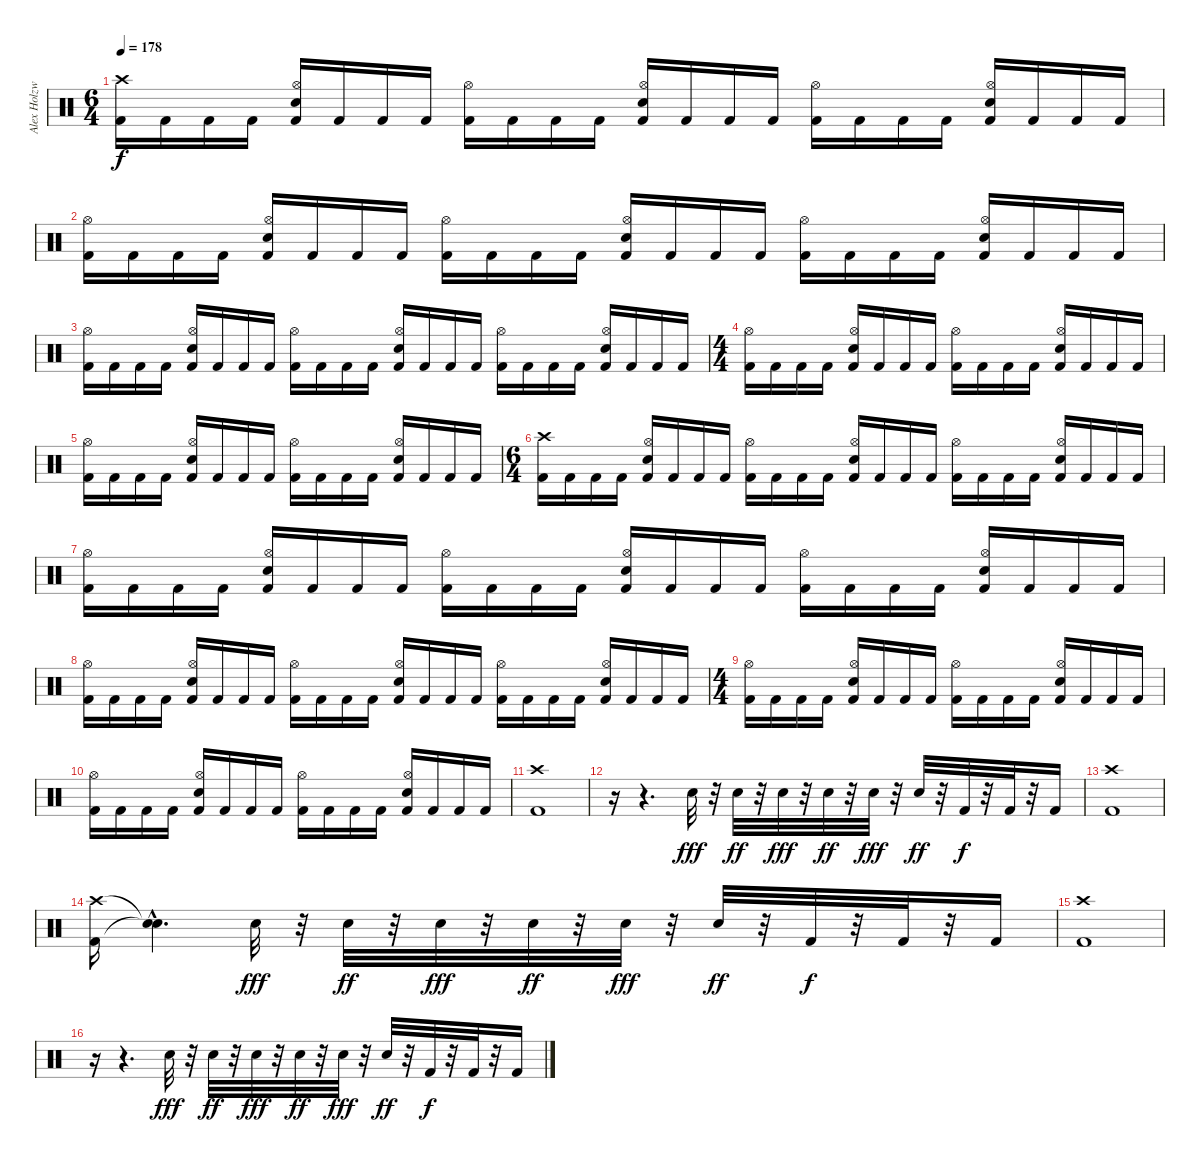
\track ("Alex Holzwarth" "Alex Holzw") {instrument percussion}
\staff {score}
\articulation defaults
\ts (6 4)
\tempo 178
\clef neutral
\ks c
("Crash high (hit)" "Kick (hit) 2").16{dy f} "Kick (hit) 2".16 "Kick (hit) 2".16 "Kick (hit) 2".16 ("Hi-Hat (open)" "Electric Snare (hit)" "Kick (hit) 2").16 "Kick (hit) 2".16 "Kick (hit) 2".16 "Kick (hit) 2".16 ("Hi-Hat (open)" "Kick (hit) 2").16 "Kick (hit) 2".16 "Kick (hit) 2".16 "Kick (hit) 2".16 ("Hi-Hat (open)" "Electric Snare (hit)" "Kick (hit) 2").16 "Kick (hit) 2".16 "Kick (hit) 2".16 "Kick (hit) 2".16 ("Hi-Hat (open)" "Kick (hit) 2").16 "Kick (hit) 2".16 "Kick (hit) 2".16 "Kick (hit) 2".16 ("Hi-Hat (open)" "Electric Snare (hit)" "Kick (hit) 2").16 "Kick (hit) 2".16 "Kick (hit) 2".16 "Kick (hit) 2".16 |
("Hi-Hat (open)" "Kick (hit) 2").16 "Kick (hit) 2".16 "Kick (hit) 2".16 "Kick (hit) 2".16 ("Hi-Hat (open)" "Electric Snare (hit)" "Kick (hit) 2").16 "Kick (hit) 2".16 "Kick (hit) 2".16 "Kick (hit) 2".16 ("Hi-Hat (open)" "Kick (hit) 2").16 "Kick (hit) 2".16 "Kick (hit) 2".16 "Kick (hit) 2".16 ("Hi-Hat (open)" "Electric Snare (hit)" "Kick (hit) 2").16 "Kick (hit) 2".16 "Kick (hit) 2".16 "Kick (hit) 2".16 ("Hi-Hat (open)" "Kick (hit) 2").16 "Kick (hit) 2".16 "Kick (hit) 2".16 "Kick (hit) 2".16 ("Hi-Hat (open)" "Electric Snare (hit)" "Kick (hit) 2").16 "Kick (hit) 2".16 "Kick (hit) 2".16 "Kick (hit) 2".16 |
("Hi-Hat (open)" "Kick (hit) 2").16 "Kick (hit) 2".16 "Kick (hit) 2".16 "Kick (hit) 2".16 ("Hi-Hat (open)" "Electric Snare (hit)" "Kick (hit) 2").16 "Kick (hit) 2".16 "Kick (hit) 2".16 "Kick (hit) 2".16 ("Hi-Hat (open)" "Kick (hit) 2").16 "Kick (hit) 2".16 "Kick (hit) 2".16 "Kick (hit) 2".16 ("Hi-Hat (open)" "Electric Snare (hit)" "Kick (hit) 2").16 "Kick (hit) 2".16 "Kick (hit) 2".16 "Kick (hit) 2".16 ("Hi-Hat (open)" "Kick (hit) 2").16 "Kick (hit) 2".16 "Kick (hit) 2".16 "Kick (hit) 2".16 ("Hi-Hat (open)" "Electric Snare (hit)" "Kick (hit) 2").16 "Kick (hit) 2".16 "Kick (hit) 2".16 "Kick (hit) 2".16 |
\ts (4 4)
("Hi-Hat (open)" "Kick (hit) 2").16 "Kick (hit) 2".16 "Kick (hit) 2".16 "Kick (hit) 2".16 ("Hi-Hat (open)" "Electric Snare (hit)" "Kick (hit) 2").16 "Kick (hit) 2".16 "Kick (hit) 2".16 "Kick (hit) 2".16 ("Hi-Hat (open)" "Kick (hit) 2").16 "Kick (hit) 2".16 "Kick (hit) 2".16 "Kick (hit) 2".16 ("Hi-Hat (open)" "Electric Snare (hit)" "Kick (hit) 2").16 "Kick (hit) 2".16 "Kick (hit) 2".16 "Kick (hit) 2".16 |
("Hi-Hat (open)" "Kick (hit) 2").16 "Kick (hit) 2".16 "Kick (hit) 2".16 "Kick (hit) 2".16 ("Hi-Hat (open)" "Electric Snare (hit)" "Kick (hit) 2").16 "Kick (hit) 2".16 "Kick (hit) 2".16 "Kick (hit) 2".16 ("Hi-Hat (open)" "Kick (hit) 2").16 "Kick (hit) 2".16 "Kick (hit) 2".16 "Kick (hit) 2".16 ("Hi-Hat (open)" "Electric Snare (hit)" "Kick (hit) 2").16 "Kick (hit) 2".16 "Kick (hit) 2".16 "Kick (hit) 2".16 |
\ts (6 4)
("Crash high (hit)" "Kick (hit) 2").16 "Kick (hit) 2".16 "Kick (hit) 2".16 "Kick (hit) 2".16 ("Hi-Hat (open)" "Electric Snare (hit)" "Kick (hit) 2").16 "Kick (hit) 2".16 "Kick (hit) 2".16 "Kick (hit) 2".16 ("Hi-Hat (open)" "Kick (hit) 2").16 "Kick (hit) 2".16 "Kick (hit) 2".16 "Kick (hit) 2".16 ("Hi-Hat (open)" "Electric Snare (hit)" "Kick (hit) 2").16 "Kick (hit) 2".16 "Kick (hit) 2".16 "Kick (hit) 2".16 ("Hi-Hat (open)" "Kick (hit) 2").16 "Kick (hit) 2".16 "Kick (hit) 2".16 "Kick (hit) 2".16 ("Hi-Hat (open)" "Electric Snare (hit)" "Kick (hit) 2").16 "Kick (hit) 2".16 "Kick (hit) 2".16 "Kick (hit) 2".16 |
("Hi-Hat (open)" "Kick (hit) 2").16 "Kick (hit) 2".16 "Kick (hit) 2".16 "Kick (hit) 2".16 ("Hi-Hat (open)" "Electric Snare (hit)" "Kick (hit) 2").16 "Kick (hit) 2".16 "Kick (hit) 2".16 "Kick (hit) 2".16 ("Hi-Hat (open)" "Kick (hit) 2").16 "Kick (hit) 2".16 "Kick (hit) 2".16 "Kick (hit) 2".16 ("Hi-Hat (open)" "Electric Snare (hit)" "Kick (hit) 2").16 "Kick (hit) 2".16 "Kick (hit) 2".16 "Kick (hit) 2".16 ("Hi-Hat (open)" "Kick (hit) 2").16 "Kick (hit) 2".16 "Kick (hit) 2".16 "Kick (hit) 2".16 ("Hi-Hat (open)" "Electric Snare (hit)" "Kick (hit) 2").16 "Kick (hit) 2".16 "Kick (hit) 2".16 "Kick (hit) 2".16 |
("Hi-Hat (open)" "Kick (hit) 2").16 "Kick (hit) 2".16 "Kick (hit) 2".16 "Kick (hit) 2".16 ("Hi-Hat (open)" "Electric Snare (hit)" "Kick (hit) 2").16 "Kick (hit) 2".16 "Kick (hit) 2".16 "Kick (hit) 2".16 ("Hi-Hat (open)" "Kick (hit) 2").16 "Kick (hit) 2".16 "Kick (hit) 2".16 "Kick (hit) 2".16 ("Hi-Hat (open)" "Electric Snare (hit)" "Kick (hit) 2").16 "Kick (hit) 2".16 "Kick (hit) 2".16 "Kick (hit) 2".16 ("Hi-Hat (open)" "Kick (hit) 2").16 "Kick (hit) 2".16 "Kick (hit) 2".16 "Kick (hit) 2".16 ("Hi-Hat (open)" "Electric Snare (hit)" "Kick (hit) 2").16 "Kick (hit) 2".16 "Kick (hit) 2".16 "Kick (hit) 2".16 |
\ts (4 4)
("Hi-Hat (open)" "Kick (hit) 2").16 "Kick (hit) 2".16 "Kick (hit) 2".16 "Kick (hit) 2".16 ("Hi-Hat (open)" "Electric Snare (hit)" "Kick (hit) 2").16 "Kick (hit) 2".16 "Kick (hit) 2".16 "Kick (hit) 2".16 ("Hi-Hat (open)" "Kick (hit) 2").16 "Kick (hit) 2".16 "Kick (hit) 2".16 "Kick (hit) 2".16 ("Hi-Hat (open)" "Electric Snare (hit)" "Kick (hit) 2").16 "Kick (hit) 2".16 "Kick (hit) 2".16 "Kick (hit) 2".16 |
("Hi-Hat (open)" "Kick (hit) 2").16 "Kick (hit) 2".16 "Kick (hit) 2".16 "Kick (hit) 2".16 ("Hi-Hat (open)" "Electric Snare (hit)" "Kick (hit) 2").16 "Kick (hit) 2".16 "Kick (hit) 2".16 "Kick (hit) 2".16 ("Hi-Hat (open)" "Kick (hit) 2").16 "Kick (hit) 2".16 "Kick (hit) 2".16 "Kick (hit) 2".16 ("Hi-Hat (open)" "Electric Snare (hit)" "Kick (hit) 2").16 "Kick (hit) 2".16 "Kick (hit) 2".16 "Kick (hit) 2".16 |
("Crash high (hit)" "Kick (hit) 2").1 |
r.16 r.4{d} "Electric Snare (hit)".32{dy fff} r.32 "Electric Snare (hit)".32{dy ff} r.32 "Electric Snare (hit)".32{dy fff} r.32 "Electric Snare (hit)".32{dy ff} r.32 "Electric Snare (hit)".32{dy fff} r.32 "Electric Snare (hit)".32{dy ff} r.32 "Kick (hit) 2".32{dy f} r.32 "Kick (hit) 2".32 r.32 "Kick (hit) 2".16 |
("Crash high (hit)" "Kick (hit) 2").1 |
("Crash high (hit)" "Kick (hit) 2").16 ("Snare (hit)"{hac t} "Snare (hit)"{hac t}).4{d} "Electric Snare (hit)".32{dy fff} r.32 "Electric Snare (hit)".32{dy ff} r.32 "Electric Snare (hit)".32{dy fff} r.32 "Electric Snare (hit)".32{dy ff} r.32 "Electric Snare (hit)".32{dy fff} r.32 "Electric Snare (hit)".32{dy ff} r.32 "Kick (hit) 2".32{dy f} r.32 "Kick (hit) 2".32 r.32 "Kick (hit) 2".16 |
("Crash high (hit)" "Kick (hit) 2").1 |
r.16 r.4{d} "Electric Snare (hit)".32{dy fff} r.32 "Electric Snare (hit)".32{dy ff} r.32 "Electric Snare (hit)".32{dy fff} r.32 "Electric Snare (hit)".32{dy ff} r.32 "Electric Snare (hit)".32{dy fff} r.32 "Electric Snare (hit)".32{dy ff} r.32 "Kick (hit) 2".32{dy f} r.32 "Kick (hit) 2".32 r.32 "Kick (hit) 2".16
